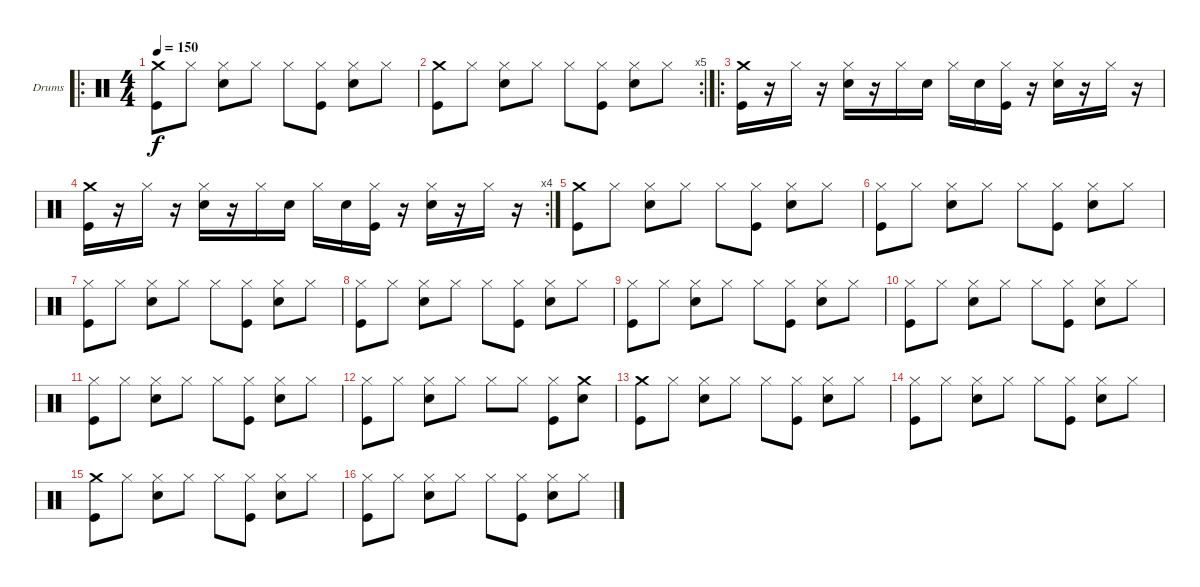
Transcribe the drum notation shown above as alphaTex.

\defaultSystemsLayout 4
\bracketExtendMode groupsimilarinstruments
\firstSystemTrackNameOrientation horizontal
\otherSystemsTrackNameOrientation horizontal
\track ("Drumkit" "Drums") {instrument percussion}
\staff {score}
\articulation defaults
\ro
\ts (4 4)
\tempo 150
\clef neutral
\scale
0.463415
\ks c
("Kick (hit)" "Crash medium (hit)").8{dy f} "Hi-Hat (closed)".8 ("Snare (hit) 2" "Hi-Hat (closed)").8 "Hi-Hat (closed)".8 "Hi-Hat (closed)".8 ("Kick (hit)" "Hi-Hat (closed)").8 ("Snare (hit) 2" "Hi-Hat (closed)").8 "Hi-Hat (closed)".8 |
\rc 5
\scale
0.256098 ("Kick (hit)" "Crash medium (hit)").8 "Hi-Hat (closed)".8 ("Snare (hit) 2" "Hi-Hat (closed)").8 "Hi-Hat (closed)".8 "Hi-Hat (closed)".8 ("Kick (hit)" "Hi-Hat (closed)").8 ("Snare (hit) 2" "Hi-Hat (closed)").8 "Hi-Hat (closed)".8 |
\ro
\scale
0.280488 ("Kick (hit)" "Crash medium (hit)").16 r.16 "Hi-Hat (closed)".16 r.16 ("Snare (hit) 2" "Hi-Hat (closed)").16 r.16 "Hi-Hat (closed)".16 "Snare (hit) 2".16 "Hi-Hat (closed)".16 "Snare (hit) 2".16 ("Kick (hit)" "Hi-Hat (closed)").16 r.16 ("Snare (hit) 2" "Hi-Hat (closed)").16 r.16 "Hi-Hat (closed)".16 r.16 |
\rc 4
("Kick (hit)" "Crash medium (hit)").16 r.16 "Hi-Hat (closed)".16 r.16 ("Snare (hit) 2" "Hi-Hat (closed)").16 r.16 "Hi-Hat (closed)".16 "Snare (hit) 2".16 "Hi-Hat (closed)".16 "Snare (hit) 2".16 ("Kick (hit)" "Hi-Hat (closed)").16 r.16 ("Snare (hit) 2" "Hi-Hat (closed)").16 r.16 "Hi-Hat (closed)".16 r.16 |
("Kick (hit)" "Crash medium (hit)").8 "Hi-Hat (closed)".8 ("Snare (hit) 2" "Hi-Hat (closed)").8 "Hi-Hat (closed)".8 "Hi-Hat (closed)".8 ("Kick (hit)" "Hi-Hat (closed)").8 ("Snare (hit) 2" "Hi-Hat (closed)").8 "Hi-Hat (closed)".8 |
("Kick (hit)" "Hi-Hat (closed)").8 "Hi-Hat (closed)".8 ("Snare (hit) 2" "Hi-Hat (closed)").8 "Hi-Hat (closed)".8 "Hi-Hat (closed)".8 ("Kick (hit)" "Hi-Hat (closed)").8 ("Snare (hit) 2" "Hi-Hat (closed)").8 "Hi-Hat (closed)".8 |
("Kick (hit)" "Hi-Hat (closed)").8 "Hi-Hat (closed)".8 ("Snare (hit) 2" "Hi-Hat (closed)").8 "Hi-Hat (closed)".8 "Hi-Hat (closed)".8 ("Kick (hit)" "Hi-Hat (closed)").8 ("Snare (hit) 2" "Hi-Hat (closed)").8 "Hi-Hat (closed)".8 |
("Kick (hit)" "Hi-Hat (closed)").8 "Hi-Hat (closed)".8 ("Snare (hit) 2" "Hi-Hat (closed)").8 "Hi-Hat (closed)".8 "Hi-Hat (closed)".8 ("Kick (hit)" "Hi-Hat (closed)").8 ("Snare (hit) 2" "Hi-Hat (closed)").8 "Hi-Hat (closed)".8 |
("Kick (hit)" "Hi-Hat (closed)").8 "Hi-Hat (closed)".8 ("Snare (hit) 2" "Hi-Hat (closed)").8 "Hi-Hat (closed)".8 "Hi-Hat (closed)".8 ("Kick (hit)" "Hi-Hat (closed)").8 ("Snare (hit) 2" "Hi-Hat (closed)").8 "Hi-Hat (closed)".8 |
("Kick (hit)" "Hi-Hat (closed)").8 "Hi-Hat (closed)".8 ("Snare (hit) 2" "Hi-Hat (closed)").8 "Hi-Hat (closed)".8 "Hi-Hat (closed)".8 ("Kick (hit)" "Hi-Hat (closed)").8 ("Snare (hit) 2" "Hi-Hat (closed)").8 "Hi-Hat (closed)".8 |
("Kick (hit)" "Hi-Hat (closed)").8 "Hi-Hat (closed)".8 ("Snare (hit) 2" "Hi-Hat (closed)").8 "Hi-Hat (closed)".8 "Hi-Hat (closed)".8 ("Kick (hit)" "Hi-Hat (closed)").8 ("Snare (hit) 2" "Hi-Hat (closed)").8 "Hi-Hat (closed)".8 |
("Kick (hit)" "Hi-Hat (closed)").8 "Hi-Hat (closed)".8 ("Snare (hit) 2" "Hi-Hat (closed)").8 "Hi-Hat (closed)".8 "Hi-Hat (closed)".8 "Hi-Hat (closed)".8 ("Kick (hit)" "Hi-Hat (closed)").8 ("Snare (hit) 2" "Crash medium (hit)").8 |
("Kick (hit)" "Crash medium (hit)").8 "Hi-Hat (closed)".8 ("Snare (hit) 2" "Hi-Hat (closed)").8 "Hi-Hat (closed)".8 "Hi-Hat (closed)".8 ("Kick (hit)" "Hi-Hat (closed)").8 ("Snare (hit) 2" "Hi-Hat (closed)").8 "Hi-Hat (closed)".8 |
("Kick (hit)" "Hi-Hat (closed)").8 "Hi-Hat (closed)".8 ("Snare (hit) 2" "Hi-Hat (closed)").8 "Hi-Hat (closed)".8 "Hi-Hat (closed)".8 ("Kick (hit)" "Hi-Hat (closed)").8 ("Snare (hit) 2" "Hi-Hat (closed)").8 "Hi-Hat (closed)".8 |
("Kick (hit)" "Crash medium (hit)").8 "Hi-Hat (closed)".8 ("Snare (hit) 2" "Hi-Hat (closed)").8 "Hi-Hat (closed)".8 "Hi-Hat (closed)".8 ("Kick (hit)" "Hi-Hat (closed)").8 ("Snare (hit) 2" "Hi-Hat (closed)").8 "Hi-Hat (closed)".8 |
("Kick (hit)" "Hi-Hat (closed)").8 "Hi-Hat (closed)".8 ("Snare (hit) 2" "Hi-Hat (closed)").8 "Hi-Hat (closed)".8 "Hi-Hat (closed)".8 ("Kick (hit)" "Hi-Hat (closed)").8 ("Snare (hit) 2" "Hi-Hat (closed)").8 "Hi-Hat (closed)".8
